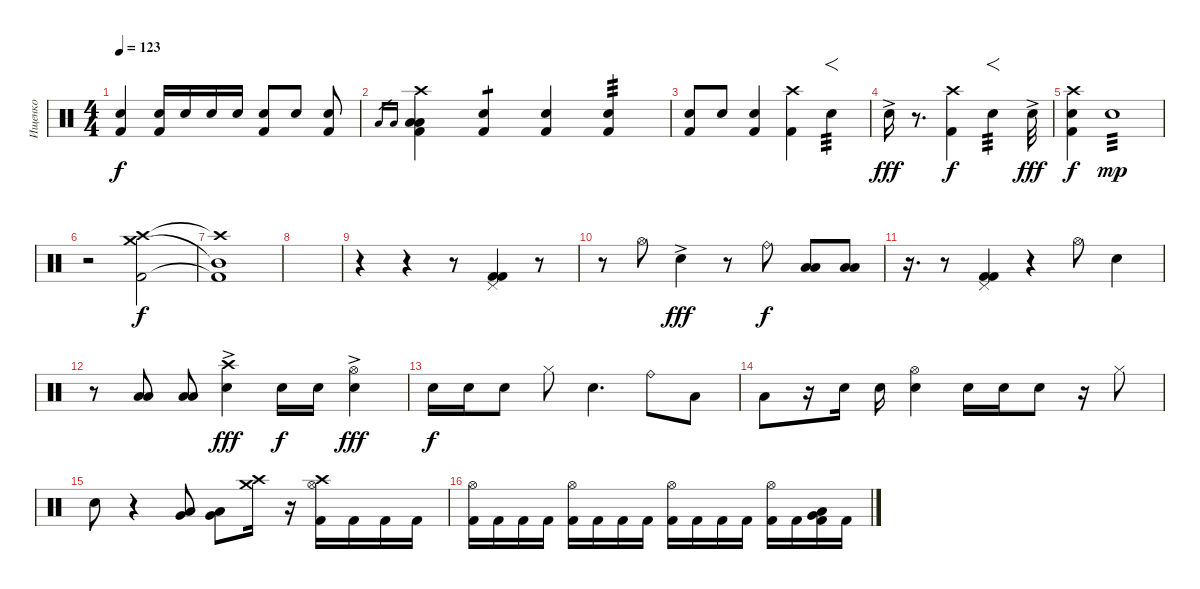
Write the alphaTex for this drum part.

\track ("Ищенко" "Ищенко") {instrument percussion}
\staff {score}
\articulation defaults
\ts (4 4)
\tempo 123
\clef neutral
\ks c
("Electric Snare (hit)" "Kick (hit) 2").4{dy f} ("Electric Snare (hit)" "Kick (hit) 2").16 "Electric Snare (hit)".16 "Electric Snare (hit)".16 "Electric Snare (hit)".16 ("Electric Snare (hit)" "Kick (hit) 2").8 "Electric Snare (hit)".8 ("Electric Snare (hit)" "Kick (hit) 2").8 |
"Low Tom (hit)".16{gr} "Low Tom (hit)".16{gr} ("Crash high (hit)" "Low Tom (hit)" "Kick (hit) 2" "Low Tom (hit)").4 ("Electric Snare (hit)" "Kick (hit) 2").4{tp 1} ("Electric Snare (hit)" "Kick (hit) 2").4 ("Electric Snare (hit)" "Kick (hit) 2").4{tp 3} |
("Electric Snare (hit)" "Kick (hit) 2").8 "Electric Snare (hit)".8 ("Electric Snare (hit)" "Kick (hit) 2").4 ("Crash high (hit)" "Kick (hit) 2").4 "Electric Snare (hit)".4{f tp 3} |
"Electric Snare (hit)"{ac}.16{dy fff} r.8{d} ("Crash high (hit)" "Kick (hit) 2").4{dy f} "Electric Snare (hit)".4{f tp 3} "Electric Snare (hit)"{ac}.32{dy fff} |
("Crash high (hit)" "Electric Snare (hit)" "Kick (hit) 2").4{dy f} "Electric Snare (hit)".1{tp 3 dy mp} |
r.2 ("Crash high (hit)" "Crash medium (hit)" "Kick (hit) 2").2{dy f} |
("Crash high (hit)"{t} "Mid Tom (hit)"{t} "Kick (hit) 2"{t}).1 |
|
r.4 r.4 r.8 ("Pedal Hi-Hat (hit)" "Kick (hit) 2" "Kick (hit) 2").4 r.8 |
r.8 "Hi-Hat (open)".8 "Electric Snare (hit)"{ac}.4{dy fff} r.8 "Ride (bell)".8{dy f} ("Low Floor Tom (hit)" "Low Tom (hit)").8 ("Low Floor Tom (hit)" "Low Tom (hit)").8 |
r.16{d} r.8 ("Kick (hit) 2" "Pedal Hi-Hat (hit)" "Kick (hit) 2").4 r.4 "Hi-Hat (open)".8 "Electric Snare (hit)".4 |
r.8 ("Low Tom (hit)" "Low Floor Tom (hit)").8 ("Low Tom (hit)" "Low Floor Tom (hit)").8 ("Crash high (hit)" "Electric Snare (hit)"{ac}).4{dy fff} "Electric Snare (hit)".16{dy f} "Electric Snare (hit)".16 ("Hi-Hat (open)" "Electric Snare (hit)"{ac}).4{dy fff} |
"Electric Snare (hit)".16{dy f} "Electric Snare (hit)".16 "Electric Snare (hit)".8 "Hi-Hat (closed)".8 "Electric Snare (hit)".4{d} "Ride (bell)".8 "Low Tom (hit)".8 |
"Low Tom (hit)".8 r.16 "Electric Snare (hit)".16 "Electric Snare (hit)".16 ("Electric Snare (hit)" "Hi-Hat (open)").4 "Electric Snare (hit)".16 "Electric Snare (hit)".16 "Electric Snare (hit)".8 r.16 "Hi-Hat (closed)".8 |
"Electric Snare (hit)".8 r.4 ("Low Tom (hit)" "Very Low Tom (hit)").8 ("Low Tom (hit)" "Very Low Tom (hit)").8 ("Crash high (hit)" "Crash medium (hit)").16 r.16 ("Hi-Hat (open)" "Crash high (hit)" "Kick (hit) 2").16 "Kick (hit) 2".16 "Kick (hit) 2".16 "Kick (hit) 2".16 |
("Hi-Hat (open)" "Kick (hit) 2").16 "Kick (hit) 2".16 "Kick (hit) 2".16 "Kick (hit) 2".16 ("Hi-Hat (open)" "Kick (hit) 2").16 "Kick (hit) 2".16 "Kick (hit) 2".16 "Kick (hit) 2".16 ("Hi-Hat (open)" "Kick (hit) 2").16 "Kick (hit) 2".16 "Kick (hit) 2".16 "Kick (hit) 2".16 ("Hi-Hat (open)" "Kick (hit) 2").16 "Kick (hit) 2".16 ("Low Floor Tom (hit)" "Very Low Tom (hit)" "Kick (hit) 2").16 "Kick (hit) 2".16
